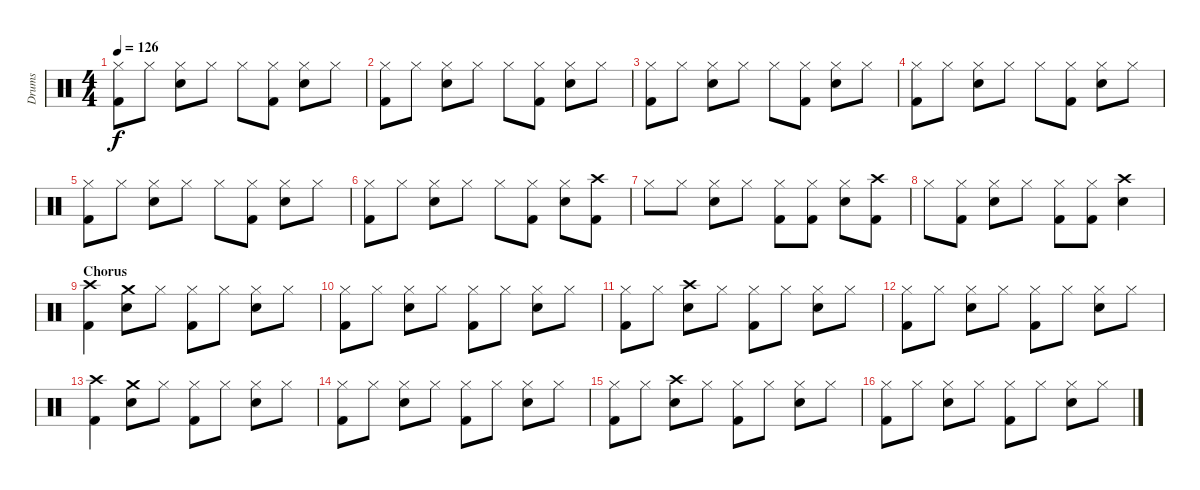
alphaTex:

\track ("Drums" "Drums") {instrument percussion}
\staff {score}
\articulation defaults
\ts (4 4)
\tempo 126
\clef neutral
\ks c
("Hi-Hat (closed)" "Kick (hit) 2").8{dy f} "Hi-Hat (closed)".8 ("Hi-Hat (closed)" "Snare (hit) 2").8 "Hi-Hat (closed)".8 "Hi-Hat (closed)".8 ("Hi-Hat (closed)" "Kick (hit) 2").8 ("Hi-Hat (closed)" "Snare (hit) 2").8 "Hi-Hat (closed)".8 |
("Hi-Hat (closed)" "Kick (hit) 2").8 "Hi-Hat (closed)".8 ("Hi-Hat (closed)" "Snare (hit) 2").8 "Hi-Hat (closed)".8 "Hi-Hat (closed)".8 ("Hi-Hat (closed)" "Kick (hit) 2").8 ("Hi-Hat (closed)" "Snare (hit) 2").8 "Hi-Hat (closed)".8 |
("Hi-Hat (closed)" "Kick (hit) 2").8 "Hi-Hat (closed)".8 ("Hi-Hat (closed)" "Snare (hit) 2").8 "Hi-Hat (closed)".8 "Hi-Hat (closed)".8 ("Hi-Hat (closed)" "Kick (hit) 2").8 ("Hi-Hat (closed)" "Snare (hit) 2").8 "Hi-Hat (closed)".8 |
("Hi-Hat (closed)" "Kick (hit) 2").8 "Hi-Hat (closed)".8 ("Hi-Hat (closed)" "Snare (hit) 2").8 "Hi-Hat (closed)".8 "Hi-Hat (closed)".8 ("Hi-Hat (closed)" "Kick (hit) 2").8 ("Hi-Hat (closed)" "Snare (hit) 2").8 "Hi-Hat (closed)".8 |
("Hi-Hat (closed)" "Kick (hit) 2").8 "Hi-Hat (closed)".8 ("Hi-Hat (closed)" "Snare (hit) 2").8 "Hi-Hat (closed)".8 "Hi-Hat (closed)".8 ("Hi-Hat (closed)" "Kick (hit) 2").8 ("Hi-Hat (closed)" "Snare (hit) 2").8 "Hi-Hat (closed)".8 |
("Hi-Hat (closed)" "Kick (hit) 2").8 "Hi-Hat (closed)".8 ("Hi-Hat (closed)" "Snare (hit) 2").8 "Hi-Hat (closed)".8 "Hi-Hat (closed)".8 ("Hi-Hat (closed)" "Kick (hit) 2").8 ("Hi-Hat (closed)" "Snare (hit) 2").8 ("Crash high (hit)" "Kick (hit) 2").8 |
"Hi-Hat (closed)".8 "Hi-Hat (closed)".8 ("Hi-Hat (closed)" "Snare (hit) 2").8 "Hi-Hat (closed)".8 ("Hi-Hat (closed)" "Kick (hit) 2").8 ("Hi-Hat (closed)" "Kick (hit) 2").8 ("Hi-Hat (closed)" "Snare (hit) 2").8 ("Crash high (hit)" "Kick (hit) 2").8 |
"Hi-Hat (closed)".8 ("Hi-Hat (closed)" "Kick (hit) 2").8 ("Hi-Hat (closed)" "Snare (hit) 2").8 "Hi-Hat (closed)".8 ("Hi-Hat (closed)" "Kick (hit) 2").8 ("Hi-Hat (closed)" "Kick (hit) 2").8 ("Crash high (hit)" "Snare (hit) 2").4 |
\section ("" "Chorus")
("Crash high (hit)" "Kick (hit) 2").4 ("Crash medium (hit)" "Snare (hit) 2").8 "Hi-Hat (closed)".8 ("Hi-Hat (closed)" "Kick (hit) 2").8 "Hi-Hat (closed)".8 ("Hi-Hat (closed)" "Snare (hit) 2").8 "Hi-Hat (closed)".8 |
("Hi-Hat (closed)" "Kick (hit) 2").8 "Hi-Hat (closed)".8 ("Hi-Hat (closed)" "Snare (hit) 2").8 "Hi-Hat (closed)".8 ("Hi-Hat (closed)" "Kick (hit) 2").8 "Hi-Hat (closed)".8 ("Hi-Hat (closed)" "Snare (hit) 2").8 "Hi-Hat (closed)".8 |
("Hi-Hat (closed)" "Kick (hit) 2").8 "Hi-Hat (closed)".8 ("Crash high (hit)" "Snare (hit) 2").8 "Hi-Hat (closed)".8 ("Hi-Hat (closed)" "Kick (hit) 2").8 "Hi-Hat (closed)".8 ("Hi-Hat (closed)" "Snare (hit) 2").8 "Hi-Hat (closed)".8 |
("Hi-Hat (closed)" "Kick (hit) 2").8 "Hi-Hat (closed)".8 ("Hi-Hat (closed)" "Snare (hit) 2").8 "Hi-Hat (closed)".8 ("Hi-Hat (closed)" "Kick (hit) 2").8 "Hi-Hat (closed)".8 ("Hi-Hat (closed)" "Snare (hit) 2").8 "Hi-Hat (closed)".8 |
("Crash high (hit)" "Kick (hit) 2").4 ("Crash medium (hit)" "Snare (hit) 2").8 "Hi-Hat (closed)".8 ("Hi-Hat (closed)" "Kick (hit) 2").8 "Hi-Hat (closed)".8 ("Hi-Hat (closed)" "Snare (hit) 2").8 "Hi-Hat (closed)".8 |
("Hi-Hat (closed)" "Kick (hit) 2").8 "Hi-Hat (closed)".8 ("Hi-Hat (closed)" "Snare (hit) 2").8 "Hi-Hat (closed)".8 ("Hi-Hat (closed)" "Kick (hit) 2").8 "Hi-Hat (closed)".8 ("Hi-Hat (closed)" "Snare (hit) 2").8 "Hi-Hat (closed)".8 |
("Hi-Hat (closed)" "Kick (hit) 2").8 "Hi-Hat (closed)".8 ("Crash high (hit)" "Snare (hit) 2").8 "Hi-Hat (closed)".8 ("Hi-Hat (closed)" "Kick (hit) 2").8 "Hi-Hat (closed)".8 ("Hi-Hat (closed)" "Snare (hit) 2").8 "Hi-Hat (closed)".8 |
("Hi-Hat (closed)" "Kick (hit) 2").8 "Hi-Hat (closed)".8 ("Hi-Hat (closed)" "Snare (hit) 2").8 "Hi-Hat (closed)".8 ("Hi-Hat (closed)" "Kick (hit) 2").8 "Hi-Hat (closed)".8 ("Hi-Hat (closed)" "Snare (hit) 2").8 "Hi-Hat (closed)".8
